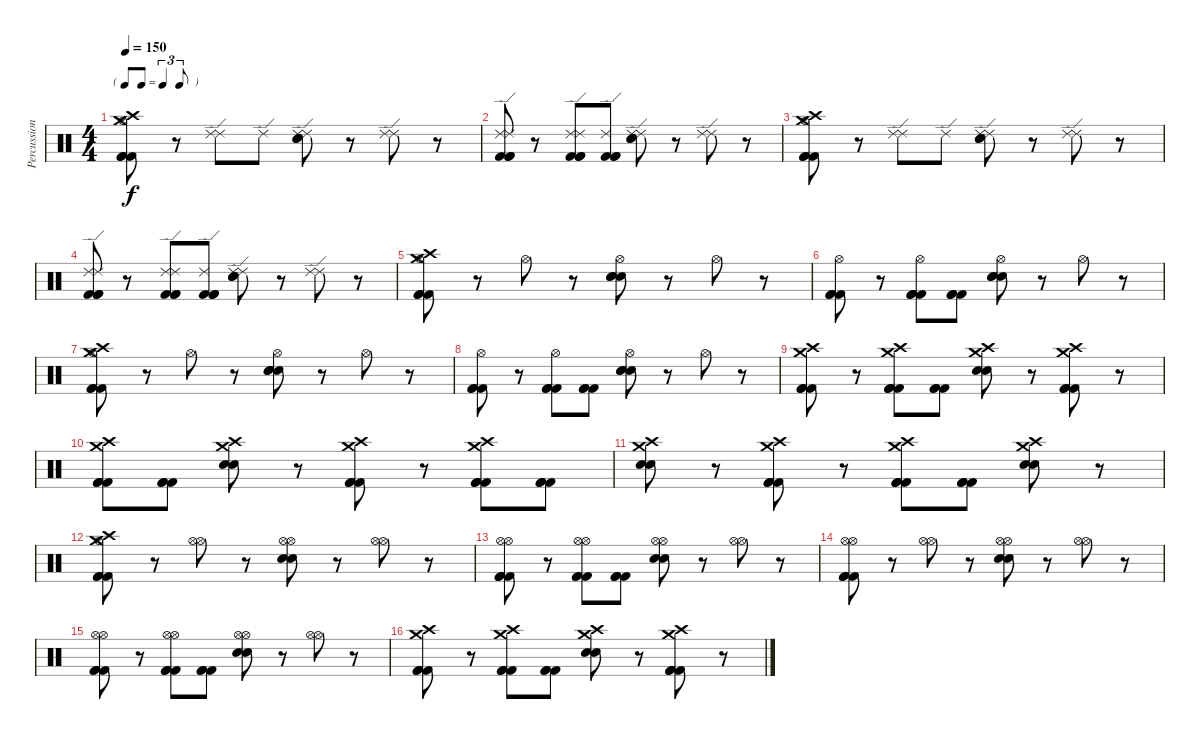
\track ("Percussion" "Percussion") {instrument percussion}
\staff {score}
\articulation defaults
\ts (4 4)
\tf triplet8th
\tempo 150
\clef neutral
\ks c
("Hi-Hat (open)" "Crash high (hit)" "Crash medium (hit)" "Kick (hit) 2" "Kick (hit) 2" "Kick (hit) 2").8{dy f} r.8 ("Ride (edge) 2" "Ride (edge) 2").8 "Ride (edge) 2".8 ("Ride (edge) 2" "Ride (edge) 2" "Electric Snare (hit)" "Electric Snare (hit)").8 r.8 ("Ride (edge) 2" "Ride (edge) 2").8 r.8 |
("Ride (edge) 2" "Ride (edge) 2" "Kick (hit) 2" "Kick (hit) 2" "Kick (hit) 2").8 r.8 ("Ride (edge) 2" "Ride (edge) 2" "Kick (hit) 2" "Kick (hit) 2" "Kick (hit) 2").8 ("Ride (edge) 2" "Kick (hit) 2" "Kick (hit) 2" "Kick (hit) 2").8 ("Ride (edge) 2" "Ride (edge) 2" "Electric Snare (hit)" "Electric Snare (hit)").8 r.8 ("Ride (edge) 2" "Ride (edge) 2").8 r.8 |
("Hi-Hat (open)" "Crash high (hit)" "Crash medium (hit)" "Kick (hit) 2" "Kick (hit) 2" "Kick (hit) 2").8 r.8 ("Ride (edge) 2" "Ride (edge) 2").8 "Ride (edge) 2".8 ("Ride (edge) 2" "Ride (edge) 2" "Electric Snare (hit)" "Electric Snare (hit)").8 r.8 ("Ride (edge) 2" "Ride (edge) 2").8 r.8 |
("Ride (edge) 2" "Ride (edge) 2" "Kick (hit) 2" "Kick (hit) 2" "Kick (hit) 2").8 r.8 ("Ride (edge) 2" "Ride (edge) 2" "Kick (hit) 2" "Kick (hit) 2" "Kick (hit) 2").8 ("Ride (edge) 2" "Kick (hit) 2" "Kick (hit) 2" "Kick (hit) 2").8 ("Ride (edge) 2" "Ride (edge) 2" "Electric Snare (hit)" "Electric Snare (hit)").8 r.8 ("Ride (edge) 2" "Ride (edge) 2").8 r.8 |
("Hi-Hat (open)" "Crash medium (hit)" "Crash high (hit)" "Kick (hit) 2" "Kick (hit) 2" "Kick (hit) 2").8 r.8 "Hi-Hat (open)".8 r.8 ("Hi-Hat (open)" "Electric Snare (hit)" "Electric Snare (hit)" "Electric Snare (hit)").8 r.8 "Hi-Hat (open)".8 r.8 |
("Hi-Hat (open)" "Kick (hit) 2" "Kick (hit) 2" "Kick (hit) 2").8 r.8 ("Hi-Hat (open)" "Kick (hit) 2" "Kick (hit) 2" "Kick (hit) 2").8 ("Kick (hit) 2" "Kick (hit) 2" "Kick (hit) 2").8 ("Hi-Hat (open)" "Electric Snare (hit)" "Electric Snare (hit)" "Electric Snare (hit)").8 r.8 "Hi-Hat (open)".8 r.8 |
("Hi-Hat (open)" "Crash medium (hit)" "Crash high (hit)" "Kick (hit) 2" "Kick (hit) 2" "Kick (hit) 2").8 r.8 "Hi-Hat (open)".8 r.8 ("Hi-Hat (open)" "Electric Snare (hit)" "Electric Snare (hit)" "Electric Snare (hit)").8 r.8 "Hi-Hat (open)".8 r.8 |
("Hi-Hat (open)" "Kick (hit) 2" "Kick (hit) 2" "Kick (hit) 2").8 r.8 ("Hi-Hat (open)" "Kick (hit) 2" "Kick (hit) 2" "Kick (hit) 2").8 ("Kick (hit) 2" "Kick (hit) 2" "Kick (hit) 2").8 ("Hi-Hat (open)" "Electric Snare (hit)" "Electric Snare (hit)" "Electric Snare (hit)").8 r.8 "Hi-Hat (open)".8 r.8 |
("Crash high (hit)" "Crash medium (hit)" "Kick (hit) 2" "Kick (hit) 2" "Kick (hit) 2").8 r.8 ("Crash high (hit)" "Crash medium (hit)" "Kick (hit) 2" "Kick (hit) 2" "Kick (hit) 2").8 ("Kick (hit) 2" "Kick (hit) 2" "Kick (hit) 2").8 ("Crash high (hit)" "Crash medium (hit)" "Electric Snare (hit)" "Electric Snare (hit)").8 r.8 ("Crash high (hit)" "Crash medium (hit)" "Kick (hit) 2" "Kick (hit) 2" "Kick (hit) 2").8 r.8 |
("Crash high (hit)" "Crash medium (hit)" "Kick (hit) 2" "Kick (hit) 2" "Kick (hit) 2").8 ("Kick (hit) 2" "Kick (hit) 2" "Kick (hit) 2").8 ("Crash high (hit)" "Crash medium (hit)" "Electric Snare (hit)" "Electric Snare (hit)").8 r.8 ("Crash high (hit)" "Crash medium (hit)" "Kick (hit) 2" "Kick (hit) 2" "Kick (hit) 2").8 r.8 ("Crash high (hit)" "Crash medium (hit)" "Kick (hit) 2" "Kick (hit) 2" "Kick (hit) 2").8 ("Kick (hit) 2" "Kick (hit) 2" "Kick (hit) 2").8 |
("Crash high (hit)" "Crash medium (hit)" "Electric Snare (hit)" "Electric Snare (hit)").8 r.8 ("Crash high (hit)" "Crash medium (hit)" "Kick (hit) 2" "Kick (hit) 2" "Kick (hit) 2").8 r.8 ("Crash high (hit)" "Crash medium (hit)" "Kick (hit) 2" "Kick (hit) 2" "Kick (hit) 2").8 ("Kick (hit) 2" "Kick (hit) 2" "Kick (hit) 2").8 ("Crash high (hit)" "Crash medium (hit)" "Electric Snare (hit)" "Electric Snare (hit)").8 r.8 |
("Hi-Hat (open)" "Crash high (hit)" "Crash medium (hit)" "Kick (hit) 2" "Kick (hit) 2" "Kick (hit) 2").8 r.8 ("Hi-Hat (open)" "Hi-Hat (open)").8 r.8 ("Hi-Hat (open)" "Hi-Hat (open)" "Electric Snare (hit)" "Electric Snare (hit)").8 r.8 ("Hi-Hat (open)" "Hi-Hat (open)").8 r.8 |
("Hi-Hat (open)" "Hi-Hat (open)" "Kick (hit) 2" "Kick (hit) 2" "Kick (hit) 2").8 r.8 ("Hi-Hat (open)" "Hi-Hat (open)" "Kick (hit) 2" "Kick (hit) 2" "Kick (hit) 2").8 ("Kick (hit) 2" "Kick (hit) 2" "Kick (hit) 2").8 ("Hi-Hat (open)" "Hi-Hat (open)" "Electric Snare (hit)" "Electric Snare (hit)").8 r.8 ("Hi-Hat (open)" "Hi-Hat (open)").8 r.8 |
("Hi-Hat (open)" "Hi-Hat (open)" "Kick (hit) 2" "Kick (hit) 2" "Kick (hit) 2").8 r.8 ("Hi-Hat (open)" "Hi-Hat (open)").8 r.8 ("Hi-Hat (open)" "Hi-Hat (open)" "Electric Snare (hit)" "Electric Snare (hit)").8 r.8 ("Hi-Hat (open)" "Hi-Hat (open)").8 r.8 |
("Hi-Hat (open)" "Hi-Hat (open)" "Kick (hit) 2" "Kick (hit) 2" "Kick (hit) 2").8 r.8 ("Hi-Hat (open)" "Hi-Hat (open)" "Kick (hit) 2" "Kick (hit) 2" "Kick (hit) 2").8 ("Kick (hit) 2" "Kick (hit) 2" "Kick (hit) 2").8 ("Hi-Hat (open)" "Hi-Hat (open)" "Electric Snare (hit)" "Electric Snare (hit)").8 r.8 ("Hi-Hat (open)" "Hi-Hat (open)").8 r.8 |
("Crash high (hit)" "Crash medium (hit)" "Kick (hit) 2" "Kick (hit) 2" "Kick (hit) 2").8 r.8 ("Crash high (hit)" "Crash medium (hit)" "Kick (hit) 2" "Kick (hit) 2" "Kick (hit) 2").8 ("Kick (hit) 2" "Kick (hit) 2" "Kick (hit) 2").8 ("Crash high (hit)" "Crash medium (hit)" "Electric Snare (hit)" "Electric Snare (hit)").8 r.8 ("Crash high (hit)" "Crash medium (hit)" "Kick (hit) 2" "Kick (hit) 2" "Kick (hit) 2").8 r.8
